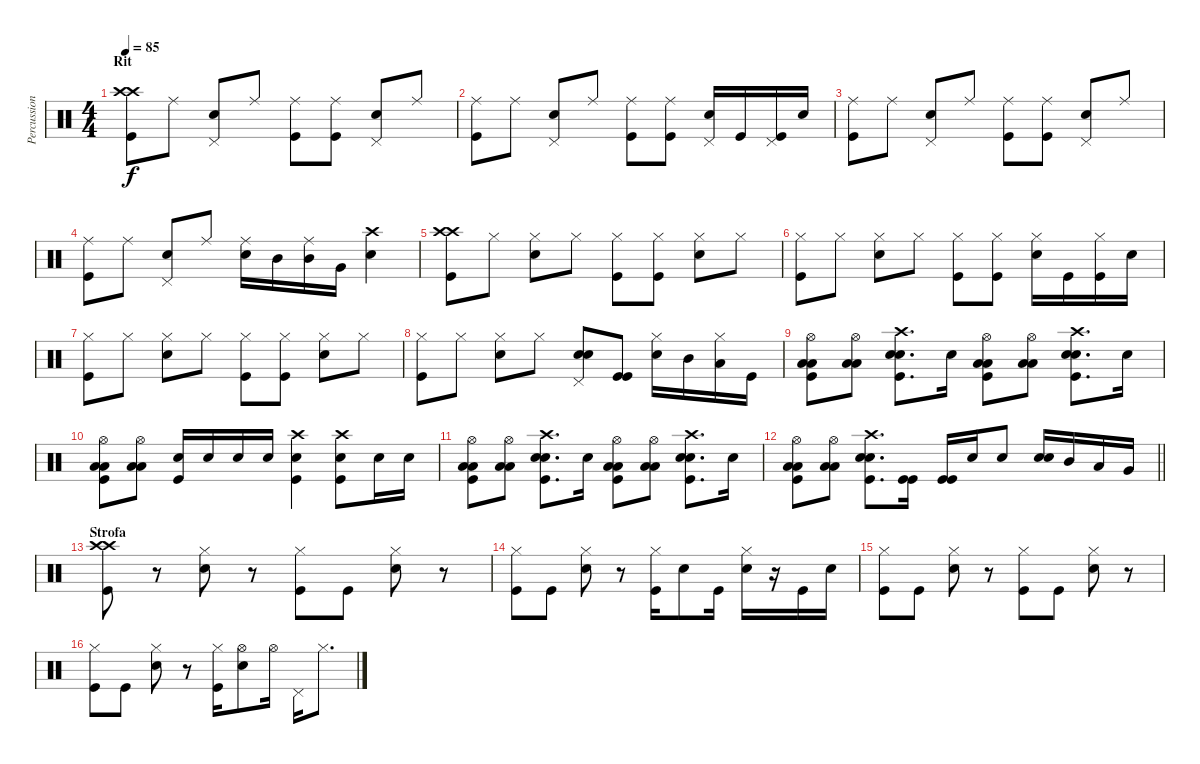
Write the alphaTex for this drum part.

\track ("Percussioni" "Percussion") {instrument percussion}
\staff {score}
\articulation defaults
\ts (4 4)
\section ("" "Rit")
\tempo 85
\clef neutral
\ks c
("Crash high (hit)" "Crash high (hit)" "Kick (hit)").8{dy f} "Ride (middle)".8 ("Pedal Hi-Hat (hit)" "Snare (hit) 2").8 "Ride (middle)".8 ("Ride (middle)" "Kick (hit)").8 ("Ride (middle)" "Kick (hit)").8 ("Pedal Hi-Hat (hit)" "Snare (hit) 2").8 "Ride (middle)".8 |
("Ride (middle)" "Kick (hit)").8 "Ride (middle)".8 ("Pedal Hi-Hat (hit)" "Snare (hit) 2").8 "Ride (middle)".8 ("Ride (middle)" "Kick (hit)").8 ("Ride (middle)" "Kick (hit)").8 ("Pedal Hi-Hat (hit)" "Snare (hit) 2").16 "Kick (hit)".16 ("Pedal Hi-Hat (hit)" "Kick (hit)").16 "Snare (hit) 2".16 |
("Ride (middle)" "Kick (hit)").8 "Ride (middle)".8 ("Pedal Hi-Hat (hit)" "Snare (hit) 2").8 "Ride (middle)".8 ("Ride (middle)" "Kick (hit)").8 ("Ride (middle)" "Kick (hit)").8 ("Pedal Hi-Hat (hit)" "Snare (hit) 2").8 "Ride (middle)".8 |
("Ride (middle)" "Kick (hit)").8 "Ride (middle)".8 ("Pedal Hi-Hat (hit)" "Snare (hit) 2").8 "Ride (middle)".8 ("Ride (middle)" "Snare (hit) 2").16 "Mid Tom (hit)".16 ("Ride (middle)" "Mid Tom (hit)").16 "Very Low Tom (hit)".16 ("Crash high (hit)" "Snare (hit) 2").4 |
("Crash high (hit)" "Crash high (hit)" "Kick (hit)").8 "Hi-Hat (closed)".8 ("Hi-Hat (closed)" "Snare (hit) 2").8 "Hi-Hat (closed)".8 ("Hi-Hat (closed)" "Kick (hit)").8 ("Hi-Hat (closed)" "Kick (hit)").8 ("Hi-Hat (closed)" "Snare (hit) 2").8 "Hi-Hat (closed)".8 |
("Hi-Hat (closed)" "Kick (hit)").8 "Hi-Hat (closed)".8 ("Hi-Hat (closed)" "Snare (hit) 2").8 "Hi-Hat (closed)".8 ("Hi-Hat (closed)" "Kick (hit)").8 ("Hi-Hat (closed)" "Kick (hit)").8 ("Hi-Hat (closed)" "Snare (hit) 2").16 "Kick (hit)".16 ("Hi-Hat (closed)" "Kick (hit)").16 "Snare (hit) 2".16 |
("Hi-Hat (closed)" "Kick (hit)").8 "Hi-Hat (closed)".8 ("Hi-Hat (closed)" "Snare (hit) 2").8 "Hi-Hat (closed)".8 ("Hi-Hat (closed)" "Kick (hit)").8 ("Hi-Hat (closed)" "Kick (hit)").8 ("Hi-Hat (closed)" "Snare (hit) 2").8 "Hi-Hat (closed)".8 |
("Hi-Hat (closed)" "Kick (hit)").8 "Hi-Hat (closed)".8 ("Hi-Hat (closed)" "Snare (hit) 2").8 "Hi-Hat (closed)".8 ("Pedal Hi-Hat (hit)" "Snare (hit) 2" "Snare (hit) 2").8 ("Kick (hit)" "Kick (hit)").8 ("Hi-Hat (closed)" "Snare (hit) 2").16 "Mid Tom (hit)".16 ("Hi-Hat (closed)" "Low Tom (hit)").16 "Kick (hit)".16 |
("Low Tom (hit)" "Low Tom (hit)" "Hi-Hat (open)" "Kick (hit)").8 ("Low Tom (hit)" "Low Tom (hit)" "Hi-Hat (open)").8 ("Crash high (hit)" "Snare (hit) 2" "Snare (hit) 2" "Kick (hit)").8{d} "Snare (hit) 2".16 ("Low Tom (hit)" "Low Tom (hit)" "Hi-Hat (open)" "Kick (hit)").8 ("Low Tom (hit)" "Low Tom (hit)" "Hi-Hat (open)").8 ("Crash high (hit)" "Snare (hit) 2" "Snare (hit) 2" "Kick (hit)").8{d} "Snare (hit) 2".16 |
("Low Tom (hit)" "Low Tom (hit)" "Hi-Hat (open)" "Kick (hit)").8 ("Low Tom (hit)" "Low Tom (hit)" "Hi-Hat (open)").8 ("Snare (hit) 2" "Kick (hit)").16 "Snare (hit) 2".16 "Snare (hit) 2".16 "Snare (hit) 2".16 ("Crash high (hit)" "Snare (hit) 2" "Kick (hit)").4 ("Crash high (hit)" "Snare (hit) 2" "Kick (hit)").8 "Snare (hit) 2".16 "Snare (hit) 2".16 |
("Low Tom (hit)" "Low Tom (hit)" "Hi-Hat (open)" "Kick (hit)").8 ("Low Tom (hit)" "Low Tom (hit)" "Hi-Hat (open)").8 ("Crash high (hit)" "Snare (hit) 2" "Snare (hit) 2" "Kick (hit)").8{d} "Snare (hit) 2".16 ("Low Tom (hit)" "Low Tom (hit)" "Hi-Hat (open)" "Kick (hit)").8 ("Low Tom (hit)" "Low Tom (hit)" "Hi-Hat (open)").8 ("Crash high (hit)" "Snare (hit) 2" "Snare (hit) 2" "Kick (hit)").8{d} "Snare (hit) 2".16 |
\barLineRight lightlight
("Low Tom (hit)" "Low Tom (hit)" "Hi-Hat (open)" "Kick (hit)").8 ("Low Tom (hit)" "Low Tom (hit)" "Hi-Hat (open)").8 ("Crash high (hit)" "Snare (hit) 2" "Snare (hit) 2" "Kick (hit)").8{d} ("Kick (hit)" "Kick (hit)").16 ("Kick (hit)" "Kick (hit)").16 "Snare (hit) 2".16 "Snare (hit) 2".8 ("Snare (hit) 2" "Snare (hit) 2").16 "Mid Tom (hit)".16 "Low Tom (hit)".16 "Very Low Tom (hit)".16 |
\section ("" "Strofa")
("Crash high (hit)" "Crash high (hit)" "Kick (hit)").8 r.8 ("Hi-Hat (closed)" "Snare (hit) 2").8 r.8 ("Hi-Hat (closed)" "Kick (hit)").8 "Kick (hit)".8 ("Hi-Hat (closed)" "Snare (hit) 2").8 r.8 |
("Hi-Hat (closed)" "Kick (hit)").8 "Kick (hit)".8 ("Hi-Hat (closed)" "Snare (hit) 2").8 r.8 ("Hi-Hat (closed)" "Kick (hit)").16 "Snare (hit) 2".8 "Kick (hit)".16 ("Hi-Hat (closed)" "Snare (hit) 2").16 r.16 "Kick (hit)".16 "Snare (hit) 2".16 |
("Hi-Hat (closed)" "Kick (hit)").8 "Kick (hit)".8 ("Hi-Hat (closed)" "Snare (hit) 2").8 r.8 ("Hi-Hat (closed)" "Kick (hit)").8 "Kick (hit)".8 ("Hi-Hat (closed)" "Snare (hit) 2").8 r.8 |
("Hi-Hat (closed)" "Kick (hit)").8 "Kick (hit)".8 ("Hi-Hat (closed)" "Snare (hit) 2").8 r.8 ("Hi-Hat (closed)" "Kick (hit)").16 ("Hi-Hat (open)" "Snare (hit) 2").8 "Hi-Hat (open)".16 "Pedal Hi-Hat (hit)".16 "Hi-Hat (closed)".8{d}
